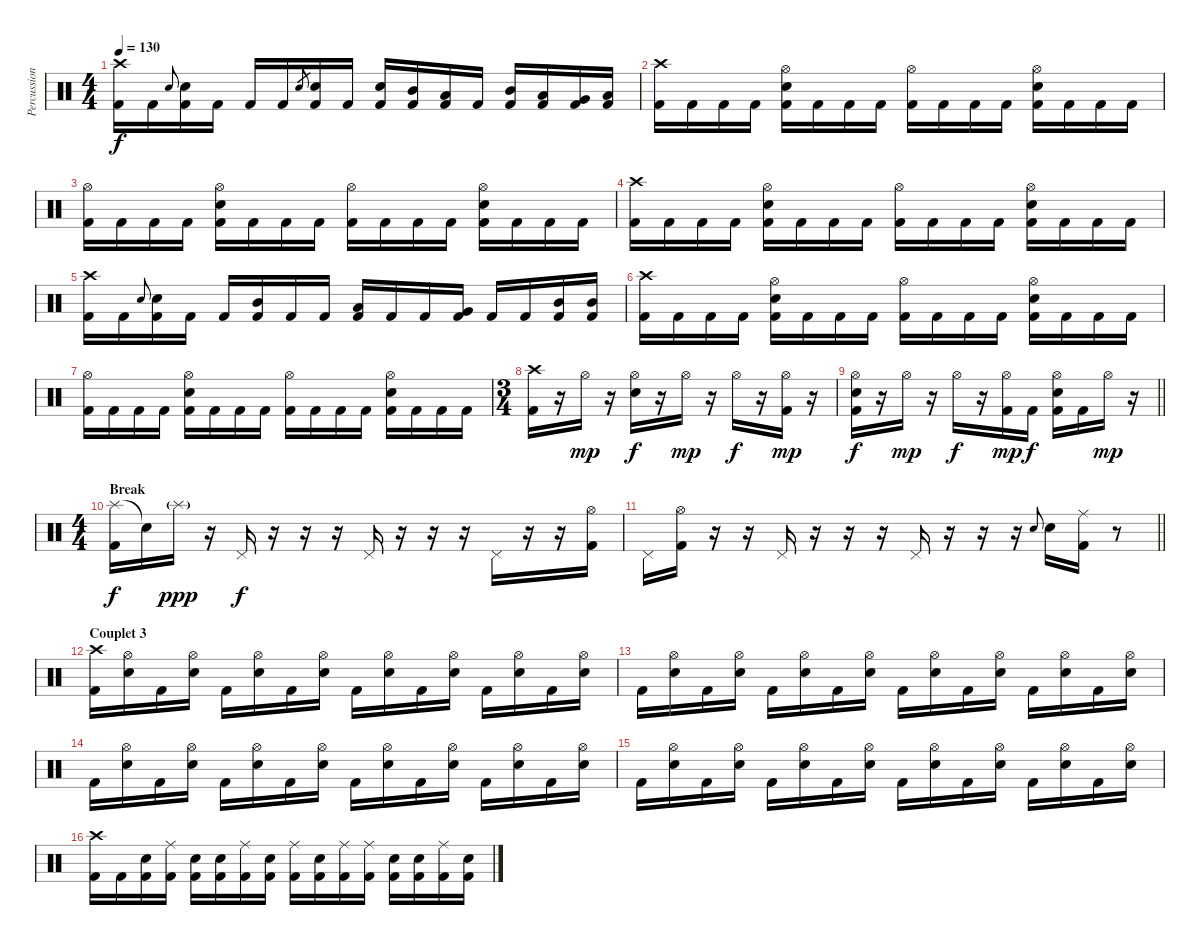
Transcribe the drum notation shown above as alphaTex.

\track ("Percussions" "Percussion") {instrument percussion}
\staff {score}
\articulation defaults
\ts (4 4)
\tempo 130
\clef neutral
\ks c
("Crash high (hit)" "Kick (hit) 2").16{dy f} "Kick (hit) 2".16 "Electric Snare (hit)".8{gr onbeat} ("Electric Snare (hit)" "Kick (hit) 2").16 "Kick (hit) 2".16 "Kick (hit) 2".16 "Kick (hit) 2".16 "Electric Snare (hit)".8{gr} ("Electric Snare (hit)" "Kick (hit) 2").16 "Kick (hit) 2".16 ("Electric Snare (hit)" "Kick (hit) 2").16 ("Mid Tom (hit)" "Kick (hit) 2").16 ("Low Tom (hit)" "Kick (hit) 2").16 "Kick (hit) 2".16 ("Mid Tom (hit)" "Kick (hit) 2").16 ("Low Tom (hit)" "Kick (hit) 2").16 ("Very Low Tom (hit)" "Kick (hit) 2").16 ("Low Floor Tom (hit)" "Kick (hit) 2").16 |
("Crash high (hit)" "Kick (hit) 2").16 "Kick (hit) 2".16 "Kick (hit) 2".16 "Kick (hit) 2".16 ("Hi-Hat (open)" "Electric Snare (hit)" "Kick (hit) 2").16 "Kick (hit) 2".16 "Kick (hit) 2".16 "Kick (hit) 2".16 ("Hi-Hat (open)" "Kick (hit) 2").16 "Kick (hit) 2".16 "Kick (hit) 2".16 "Kick (hit) 2".16 ("Hi-Hat (open)" "Electric Snare (hit)" "Kick (hit) 2").16 "Kick (hit) 2".16 "Kick (hit) 2".16 "Kick (hit) 2".16 |
("Hi-Hat (open)" "Kick (hit) 2").16 "Kick (hit) 2".16 "Kick (hit) 2".16 "Kick (hit) 2".16 ("Hi-Hat (open)" "Electric Snare (hit)" "Kick (hit) 2").16 "Kick (hit) 2".16 "Kick (hit) 2".16 "Kick (hit) 2".16 ("Hi-Hat (open)" "Kick (hit) 2").16 "Kick (hit) 2".16 "Kick (hit) 2".16 "Kick (hit) 2".16 ("Hi-Hat (open)" "Electric Snare (hit)" "Kick (hit) 2").16 "Kick (hit) 2".16 "Kick (hit) 2".16 "Kick (hit) 2".16 |
("Crash high (hit)" "Kick (hit) 2").16 "Kick (hit) 2".16 "Kick (hit) 2".16 "Kick (hit) 2".16 ("Hi-Hat (open)" "Electric Snare (hit)" "Kick (hit) 2").16 "Kick (hit) 2".16 "Kick (hit) 2".16 "Kick (hit) 2".16 ("Hi-Hat (open)" "Kick (hit) 2").16 "Kick (hit) 2".16 "Kick (hit) 2".16 "Kick (hit) 2".16 ("Hi-Hat (open)" "Electric Snare (hit)" "Kick (hit) 2").16 "Kick (hit) 2".16 "Kick (hit) 2".16 "Kick (hit) 2".16 |
("Crash high (hit)" "Kick (hit) 2").16 "Kick (hit) 2".16 "Electric Snare (hit)".8{gr onbeat} ("Electric Snare (hit)" "Kick (hit) 2").16 "Kick (hit) 2".16 "Kick (hit) 2".16 ("Mid Tom (hit)" "Kick (hit) 2").16 "Kick (hit) 2".16 "Kick (hit) 2".16 ("Low Tom (hit)" "Kick (hit) 2").16 "Kick (hit) 2".16 "Kick (hit) 2".16 ("Very Low Tom (hit)" "Kick (hit) 2").16 "Kick (hit) 2".16 "Kick (hit) 2".16 ("Mid Tom (hit)" "Kick (hit) 2").16 ("Mid Tom (hit)" "Kick (hit) 2").16 |
("Crash high (hit)" "Kick (hit) 2").16 "Kick (hit) 2".16 "Kick (hit) 2".16 "Kick (hit) 2".16 ("Hi-Hat (open)" "Electric Snare (hit)" "Kick (hit) 2").16 "Kick (hit) 2".16 "Kick (hit) 2".16 "Kick (hit) 2".16 ("Hi-Hat (open)" "Kick (hit) 2").16 "Kick (hit) 2".16 "Kick (hit) 2".16 "Kick (hit) 2".16 ("Hi-Hat (open)" "Electric Snare (hit)" "Kick (hit) 2").16 "Kick (hit) 2".16 "Kick (hit) 2".16 "Kick (hit) 2".16 |
("Hi-Hat (open)" "Kick (hit) 2").16 "Kick (hit) 2".16 "Kick (hit) 2".16 "Kick (hit) 2".16 ("Hi-Hat (open)" "Electric Snare (hit)" "Kick (hit) 2").16 "Kick (hit) 2".16 "Kick (hit) 2".16 "Kick (hit) 2".16 ("Hi-Hat (open)" "Kick (hit) 2").16 "Kick (hit) 2".16 "Kick (hit) 2".16 "Kick (hit) 2".16 ("Hi-Hat (open)" "Electric Snare (hit)" "Kick (hit) 2").16 "Kick (hit) 2".16 "Kick (hit) 2".16 "Kick (hit) 2".16 |
\ts (3 4)
("Crash high (hit)" "Kick (hit) 2").16 r.16 "Hi-Hat (open)".16{dy mp} r.16 ("Hi-Hat (open)" "Electric Snare (hit)").16{dy f} r.16 "Hi-Hat (open)".16{dy mp} r.16 "Hi-Hat (open)".16{dy f} r.16 ("Hi-Hat (open)" "Kick (hit) 2").16{dy mp} r.16 |
\barLineRight lightlight
("Hi-Hat (open)" "Electric Snare (hit)" "Kick (hit) 2").16{dy f} r.16 "Hi-Hat (open)".16{dy mp} r.16 "Hi-Hat (open)".16{dy f} r.16 ("Hi-Hat (open)" "Kick (hit) 2").16{dy mp} "Kick (hit) 2".16{dy f} ("Hi-Hat (open)" "Electric Snare (hit)" "Kick (hit) 2").16 "Kick (hit) 2".16 "Hi-Hat (open)".16{dy mp} r.16 |
\ts (4 4)
\section ("" "Break")
("Splash (hit)" "Kick (hit) 2").16{dy f} "Snare (hit)"{t}.16 "Splash (hit)"{g}.16{dy ppp} r.16 "Pedal Hi-Hat (hit)".16{dy f} r.16 r.16 r.16 "Pedal Hi-Hat (hit)".16 r.16 r.16 r.16 "Pedal Hi-Hat (hit)".16 r.16 r.16 ("Hi-Hat (open)" "Kick (hit) 2").16 |
\barLineRight lightlight "Pedal Hi-Hat (hit)".16
("Hi-Hat (open)" "Kick (hit) 2").16 r.16 r.16 "Pedal Hi-Hat (hit)".16 r.16 r.16 r.16 "Pedal Hi-Hat (hit)".16 r.16 r.16 r.16 "Electric Snare (hit)".8{gr onbeat} "Electric Snare (hit)".16 ("Ride (middle)" "Kick (hit) 2").16 r.8 |
\section ("" "Couplet 3")
("Crash high (hit)" "Kick (hit) 2").16 ("Hi-Hat (open)" "Electric Snare (hit)").16 "Kick (hit) 2".16 ("Hi-Hat (open)" "Electric Snare (hit)").16 "Kick (hit) 2".16 ("Hi-Hat (open)" "Electric Snare (hit)").16 "Kick (hit) 2".16 ("Hi-Hat (open)" "Electric Snare (hit)").16 "Kick (hit) 2".16 ("Hi-Hat (open)" "Electric Snare (hit)").16 "Kick (hit) 2".16 ("Hi-Hat (open)" "Electric Snare (hit)").16 "Kick (hit) 2".16 ("Hi-Hat (open)" "Electric Snare (hit)").16 "Kick (hit) 2".16 ("Hi-Hat (open)" "Electric Snare (hit)").16 |
"Kick (hit) 2".16 ("Hi-Hat (open)" "Electric Snare (hit)").16 "Kick (hit) 2".16 ("Hi-Hat (open)" "Electric Snare (hit)").16 "Kick (hit) 2".16 ("Hi-Hat (open)" "Electric Snare (hit)").16 "Kick (hit) 2".16 ("Hi-Hat (open)" "Electric Snare (hit)").16 "Kick (hit) 2".16 ("Hi-Hat (open)" "Electric Snare (hit)").16 "Kick (hit) 2".16 ("Hi-Hat (open)" "Electric Snare (hit)").16 "Kick (hit) 2".16 ("Hi-Hat (open)" "Electric Snare (hit)").16 "Kick (hit) 2".16 ("Hi-Hat (open)" "Electric Snare (hit)").16 |
"Kick (hit) 2".16 ("Hi-Hat (open)" "Electric Snare (hit)").16 "Kick (hit) 2".16 ("Hi-Hat (open)" "Electric Snare (hit)").16 "Kick (hit) 2".16 ("Hi-Hat (open)" "Electric Snare (hit)").16 "Kick (hit) 2".16 ("Hi-Hat (open)" "Electric Snare (hit)").16 "Kick (hit) 2".16 ("Hi-Hat (open)" "Electric Snare (hit)").16 "Kick (hit) 2".16 ("Hi-Hat (open)" "Electric Snare (hit)").16 "Kick (hit) 2".16 ("Hi-Hat (open)" "Electric Snare (hit)").16 "Kick (hit) 2".16 ("Hi-Hat (open)" "Electric Snare (hit)").16 |
"Kick (hit) 2".16 ("Hi-Hat (open)" "Electric Snare (hit)").16 "Kick (hit) 2".16 ("Hi-Hat (open)" "Electric Snare (hit)").16 "Kick (hit) 2".16 ("Hi-Hat (open)" "Electric Snare (hit)").16 "Kick (hit) 2".16 ("Hi-Hat (open)" "Electric Snare (hit)").16 "Kick (hit) 2".16 ("Hi-Hat (open)" "Electric Snare (hit)").16 "Kick (hit) 2".16 ("Hi-Hat (open)" "Electric Snare (hit)").16 "Kick (hit) 2".16 ("Hi-Hat (open)" "Electric Snare (hit)").16 "Kick (hit) 2".16 ("Hi-Hat (open)" "Electric Snare (hit)").16 |
("Crash high (hit)" "Kick (hit) 2").16 "Kick (hit) 2".16 ("Electric Snare (hit)" "Kick (hit) 2").16 ("Ride (middle)" "Kick (hit) 2").16 ("Electric Snare (hit)" "Kick (hit) 2").16 ("Electric Snare (hit)" "Kick (hit) 2").16 ("Ride (middle)" "Kick (hit) 2").16 ("Electric Snare (hit)" "Kick (hit) 2").16 ("Ride (middle)" "Kick (hit) 2").16 ("Electric Snare (hit)" "Kick (hit) 2").16 ("Ride (middle)" "Kick (hit) 2").16 ("Ride (middle)" "Kick (hit) 2").16 ("Electric Snare (hit)" "Kick (hit) 2").16 ("Electric Snare (hit)" "Kick (hit) 2").16 ("Ride (middle)" "Kick (hit) 2").16 ("Electric Snare (hit)" "Kick (hit) 2").16
